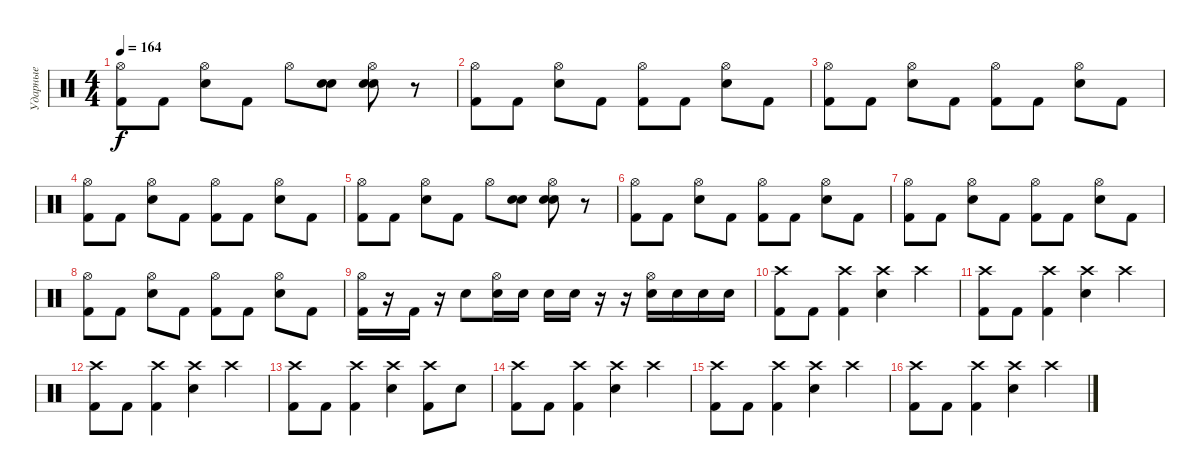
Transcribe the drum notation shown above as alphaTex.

\track ("Ударные" "Ударные") {instrument percussion}
\staff {score}
\articulation defaults
\ts (4 4)
\tempo 164
\clef neutral
\ks c
("Hi-Hat (open)" "Kick (hit) 2").8{dy f} "Kick (hit) 2".8 ("Hi-Hat (open)" "Snare (hit) 2").8 "Kick (hit) 2".8 "Hi-Hat (open)".8 ("Snare (hit) 2" "Snare (hit) 2").8 ("Hi-Hat (open)" "Snare (hit) 2" "Snare (hit) 2").8 r.8 |
("Hi-Hat (open)" "Kick (hit) 2").8 "Kick (hit) 2".8 ("Hi-Hat (open)" "Snare (hit) 2").8 "Kick (hit) 2".8 ("Hi-Hat (open)" "Kick (hit) 2").8 "Kick (hit) 2".8 ("Hi-Hat (open)" "Snare (hit) 2").8 "Kick (hit) 2".8 |
("Hi-Hat (open)" "Kick (hit) 2").8 "Kick (hit) 2".8 ("Hi-Hat (open)" "Snare (hit) 2").8 "Kick (hit) 2".8 ("Hi-Hat (open)" "Kick (hit) 2").8 "Kick (hit) 2".8 ("Hi-Hat (open)" "Snare (hit) 2").8 "Kick (hit) 2".8 |
("Hi-Hat (open)" "Kick (hit) 2").8 "Kick (hit) 2".8 ("Hi-Hat (open)" "Snare (hit) 2").8 "Kick (hit) 2".8 ("Hi-Hat (open)" "Kick (hit) 2").8 "Kick (hit) 2".8 ("Hi-Hat (open)" "Snare (hit) 2").8 "Kick (hit) 2".8 |
("Hi-Hat (open)" "Kick (hit) 2").8 "Kick (hit) 2".8 ("Hi-Hat (open)" "Snare (hit) 2").8 "Kick (hit) 2".8 "Hi-Hat (open)".8 ("Snare (hit) 2" "Snare (hit) 2").8 ("Hi-Hat (open)" "Snare (hit) 2" "Snare (hit) 2").8 r.8 |
("Hi-Hat (open)" "Kick (hit) 2").8 "Kick (hit) 2".8 ("Hi-Hat (open)" "Snare (hit) 2").8 "Kick (hit) 2".8 ("Hi-Hat (open)" "Kick (hit) 2").8 "Kick (hit) 2".8 ("Hi-Hat (open)" "Snare (hit) 2").8 "Kick (hit) 2".8 |
("Hi-Hat (open)" "Kick (hit) 2").8 "Kick (hit) 2".8 ("Hi-Hat (open)" "Snare (hit) 2").8 "Kick (hit) 2".8 ("Hi-Hat (open)" "Kick (hit) 2").8 "Kick (hit) 2".8 ("Hi-Hat (open)" "Snare (hit) 2").8 "Kick (hit) 2".8 |
("Hi-Hat (open)" "Kick (hit) 2").8 "Kick (hit) 2".8 ("Hi-Hat (open)" "Snare (hit) 2").8 "Kick (hit) 2".8 ("Hi-Hat (open)" "Kick (hit) 2").8 "Kick (hit) 2".8 ("Hi-Hat (open)" "Snare (hit) 2").8 "Kick (hit) 2".8 |
("Hi-Hat (open)" "Kick (hit) 2").16 r.16 "Kick (hit) 2".16 r.16 "Snare (hit) 2".8 ("Hi-Hat (open)" "Snare (hit) 2").16 "Snare (hit) 2".16 "Snare (hit) 2".16 "Snare (hit) 2".16 r.16 r.16 ("Hi-Hat (open)" "Snare (hit) 2").16 "Snare (hit) 2".16 "Snare (hit) 2".16 "Snare (hit) 2".16 |
("Crash high (hit)" "Kick (hit) 2").8 "Kick (hit) 2".8 ("Crash high (hit)" "Kick (hit) 2").4 ("Crash high (hit)" "Snare (hit) 2").4 "Crash high (hit)".4 |
("Crash high (hit)" "Kick (hit) 2").8 "Kick (hit) 2".8 ("Crash high (hit)" "Kick (hit) 2").4 ("Crash high (hit)" "Snare (hit) 2").4 "Crash high (hit)".4 |
("Crash high (hit)" "Kick (hit) 2").8 "Kick (hit) 2".8 ("Crash high (hit)" "Kick (hit) 2").4 ("Crash high (hit)" "Snare (hit) 2").4 "Crash high (hit)".4 |
("Crash high (hit)" "Kick (hit) 2").8 "Kick (hit) 2".8 ("Crash high (hit)" "Kick (hit) 2").4 ("Crash high (hit)" "Snare (hit) 2").4 ("Crash high (hit)" "Kick (hit) 2").8 "Snare (hit) 2".8 |
("Crash high (hit)" "Kick (hit) 2").8 "Kick (hit) 2".8 ("Crash high (hit)" "Kick (hit) 2").4 ("Crash high (hit)" "Snare (hit) 2").4 "Crash high (hit)".4 |
("Crash high (hit)" "Kick (hit) 2").8 "Kick (hit) 2".8 ("Crash high (hit)" "Kick (hit) 2").4 ("Crash high (hit)" "Snare (hit) 2").4 "Crash high (hit)".4 |
("Crash high (hit)" "Kick (hit) 2").8 "Kick (hit) 2".8 ("Crash high (hit)" "Kick (hit) 2").4 ("Crash high (hit)" "Snare (hit) 2").4 "Crash high (hit)".4
